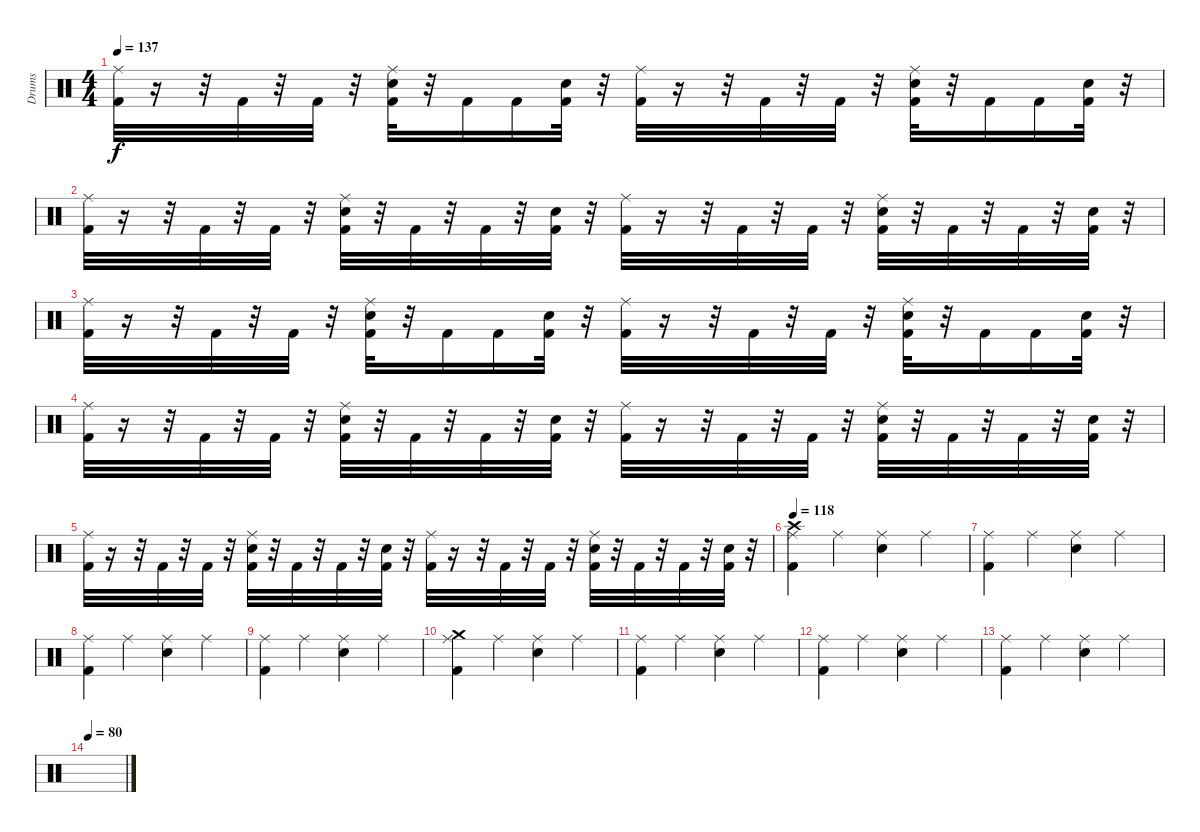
\track ("Drums" "Drums") {instrument percussion}
\staff {score}
\articulation defaults
\ts (4 4)
\tempo 137
\clef neutral
\ks c
("Ride (middle)" "Kick (hit) 2").32{dy f} r.16 r.32 "Kick (hit) 2".32 r.32 "Kick (hit) 2".32 r.32 ("Ride (middle)" "Snare (hit) 2" "Kick (hit) 2").32 r.32 "Kick (hit) 2".16 "Kick (hit) 2".16 ("Snare (hit) 2" "Kick (hit) 2").32 r.32 ("Ride (middle)" "Kick (hit) 2").32 r.16 r.32 "Kick (hit) 2".32 r.32 "Kick (hit) 2".32 r.32 ("Ride (middle)" "Snare (hit) 2" "Kick (hit) 2").32 r.32 "Kick (hit) 2".16 "Kick (hit) 2".16 ("Snare (hit) 2" "Kick (hit) 2").32 r.32 |
("Ride (middle)" "Kick (hit) 2").32 r.16 r.32 "Kick (hit) 2".32 r.32 "Kick (hit) 2".32 r.32 ("Ride (middle)" "Snare (hit) 2" "Kick (hit) 2").32 r.32 "Kick (hit) 2".32 r.32 "Kick (hit) 2".32 r.32 ("Electric Snare (hit)" "Kick (hit) 2").32 r.32 ("Ride (middle)" "Kick (hit) 2").32 r.16 r.32 "Kick (hit) 2".32 r.32 "Kick (hit) 2".32 r.32 ("Ride (middle)" "Snare (hit) 2" "Kick (hit) 2").32 r.32 "Kick (hit) 2".32 r.32 "Kick (hit) 2".32 r.32 ("Electric Snare (hit)" "Kick (hit) 2").32 r.32 |
("Ride (middle)" "Kick (hit) 2").32 r.16 r.32 "Kick (hit) 2".32 r.32 "Kick (hit) 2".32 r.32 ("Ride (middle)" "Snare (hit) 2" "Kick (hit) 2").32 r.32 "Kick (hit) 2".16 "Kick (hit) 2".16 ("Snare (hit) 2" "Kick (hit) 2").32 r.32 ("Ride (middle)" "Kick (hit) 2").32 r.16 r.32 "Kick (hit) 2".32 r.32 "Kick (hit) 2".32 r.32 ("Ride (middle)" "Snare (hit) 2" "Kick (hit) 2").32 r.32 "Kick (hit) 2".16 "Kick (hit) 2".16 ("Snare (hit) 2" "Kick (hit) 2").32 r.32 |
("Ride (middle)" "Kick (hit) 2").32 r.16 r.32 "Kick (hit) 2".32 r.32 "Kick (hit) 2".32 r.32 ("Ride (middle)" "Snare (hit) 2" "Kick (hit) 2").32 r.32 "Kick (hit) 2".32 r.32 "Kick (hit) 2".32 r.32 ("Electric Snare (hit)" "Kick (hit) 2").32 r.32 ("Ride (middle)" "Kick (hit) 2").32 r.16 r.32 "Kick (hit) 2".32 r.32 "Kick (hit) 2".32 r.32 ("Ride (middle)" "Snare (hit) 2" "Kick (hit) 2").32 r.32 "Kick (hit) 2".32 r.32 "Kick (hit) 2".32 r.32 ("Electric Snare (hit)" "Kick (hit) 2").32 r.32 |
("Ride (middle)" "Kick (hit) 2").32 r.16 r.32 "Kick (hit) 2".32 r.32 "Kick (hit) 2".32 r.32 ("Ride (middle)" "Snare (hit) 2" "Kick (hit) 2").32 r.32 "Kick (hit) 2".32 r.32 "Kick (hit) 2".32 r.32 ("Electric Snare (hit)" "Kick (hit) 2").32 r.32 ("Ride (middle)" "Kick (hit) 2").32 r.16 r.32 "Kick (hit) 2".32 r.32 "Kick (hit) 2".32 r.32 ("Ride (middle)" "Snare (hit) 2" "Kick (hit) 2").32 r.32 "Kick (hit) 2".32 r.32 "Kick (hit) 2".32 r.32 ("Electric Snare (hit)" "Kick (hit) 2").32 r.32 |
\tempo 118
("Crash high (hit)" "Kick (hit) 2" "Ride (middle)").4 "Ride (middle)".4 ("Ride (middle)" "Electric Snare (hit)").4 "Ride (middle)".4 |
("Ride (middle)" "Kick (hit) 2").4 "Ride (middle)".4 ("Ride (middle)" "Electric Snare (hit)").4 "Ride (middle)".4 |
("Ride (middle)" "Kick (hit) 2").4 "Ride (middle)".4 ("Ride (middle)" "Electric Snare (hit)").4 "Ride (middle)".4 |
("Ride (middle)" "Kick (hit) 2").4 "Ride (middle)".4 ("Ride (middle)" "Electric Snare (hit)").4 "Ride (middle)".4 |
("Crash medium (hit)" "Kick (hit) 2" "Ride (middle)").4 "Ride (middle)".4 ("Ride (middle)" "Electric Snare (hit)").4 "Ride (middle)".4 |
("Ride (middle)" "Kick (hit) 2").4 "Ride (middle)".4 ("Ride (middle)" "Electric Snare (hit)").4 "Ride (middle)".4 |
("Ride (middle)" "Kick (hit) 2").4 "Ride (middle)".4 ("Ride (middle)" "Electric Snare (hit)").4 "Ride (middle)".4 |
("Ride (middle)" "Kick (hit) 2").4 "Ride (middle)".4 ("Ride (middle)" "Electric Snare (hit)").4 "Ride (middle)".4 |
\tempo 80
